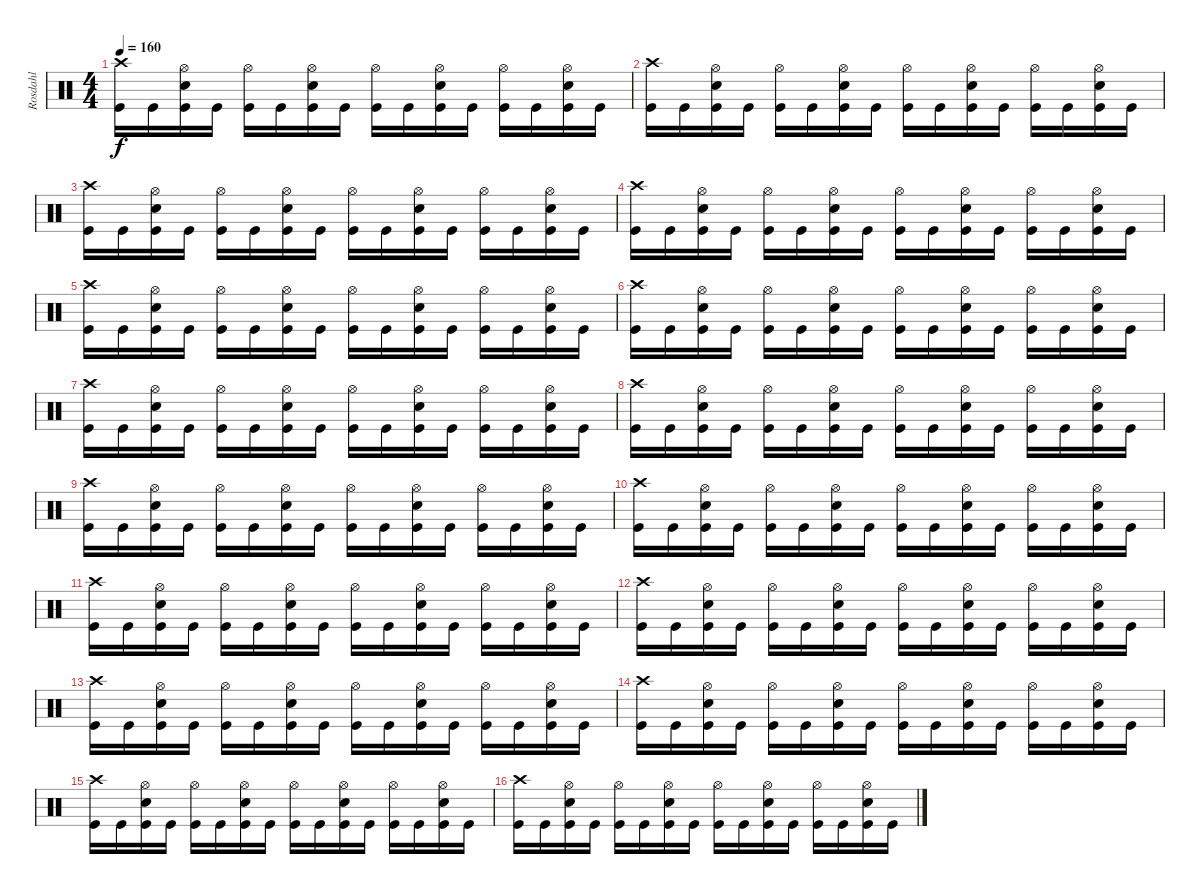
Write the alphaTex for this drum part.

\track ("Rosdahl" "Rosdahl") {instrument percussion}
\staff {score}
\articulation defaults
\ts (4 4)
\tempo 160
\clef neutral
\ks c
("Crash high (hit)" "Kick (hit)").16{dy f} "Kick (hit)".16 ("Hi-Hat (open)" "Electric Snare (hit)" "Kick (hit)").16 "Kick (hit)".16 ("Hi-Hat (open)" "Kick (hit)").16 "Kick (hit)".16 ("Hi-Hat (open)" "Electric Snare (hit)" "Kick (hit)").16 "Kick (hit)".16 ("Hi-Hat (open)" "Kick (hit)").16 "Kick (hit)".16 ("Hi-Hat (open)" "Electric Snare (hit)" "Kick (hit)").16 "Kick (hit)".16 ("Hi-Hat (open)" "Kick (hit)").16 "Kick (hit)".16 ("Hi-Hat (open)" "Electric Snare (hit)" "Kick (hit)").16 "Kick (hit)".16 |
("Crash high (hit)" "Kick (hit)").16 "Kick (hit)".16 ("Hi-Hat (open)" "Electric Snare (hit)" "Kick (hit)").16 "Kick (hit)".16 ("Hi-Hat (open)" "Kick (hit)").16 "Kick (hit)".16 ("Hi-Hat (open)" "Electric Snare (hit)" "Kick (hit)").16 "Kick (hit)".16 ("Hi-Hat (open)" "Kick (hit)").16 "Kick (hit)".16 ("Hi-Hat (open)" "Electric Snare (hit)" "Kick (hit)").16 "Kick (hit)".16 ("Hi-Hat (open)" "Kick (hit)").16 "Kick (hit)".16 ("Hi-Hat (open)" "Electric Snare (hit)" "Kick (hit)").16 "Kick (hit)".16 |
("Crash high (hit)" "Kick (hit)").16 "Kick (hit)".16 ("Hi-Hat (open)" "Electric Snare (hit)" "Kick (hit)").16 "Kick (hit)".16 ("Hi-Hat (open)" "Kick (hit)").16 "Kick (hit)".16 ("Hi-Hat (open)" "Electric Snare (hit)" "Kick (hit)").16 "Kick (hit)".16 ("Hi-Hat (open)" "Kick (hit)").16 "Kick (hit)".16 ("Hi-Hat (open)" "Electric Snare (hit)" "Kick (hit)").16 "Kick (hit)".16 ("Hi-Hat (open)" "Kick (hit)").16 "Kick (hit)".16 ("Hi-Hat (open)" "Electric Snare (hit)" "Kick (hit)").16 "Kick (hit)".16 |
("Crash high (hit)" "Kick (hit)").16 "Kick (hit)".16 ("Hi-Hat (open)" "Electric Snare (hit)" "Kick (hit)").16 "Kick (hit)".16 ("Hi-Hat (open)" "Kick (hit)").16 "Kick (hit)".16 ("Hi-Hat (open)" "Electric Snare (hit)" "Kick (hit)").16 "Kick (hit)".16 ("Hi-Hat (open)" "Kick (hit)").16 "Kick (hit)".16 ("Hi-Hat (open)" "Electric Snare (hit)" "Kick (hit)").16 "Kick (hit)".16 ("Hi-Hat (open)" "Kick (hit)").16 "Kick (hit)".16 ("Hi-Hat (open)" "Electric Snare (hit)" "Kick (hit)").16 "Kick (hit)".16 |
("Crash high (hit)" "Kick (hit)").16 "Kick (hit)".16 ("Hi-Hat (open)" "Electric Snare (hit)" "Kick (hit)").16 "Kick (hit)".16 ("Hi-Hat (open)" "Kick (hit)").16 "Kick (hit)".16 ("Hi-Hat (open)" "Electric Snare (hit)" "Kick (hit)").16 "Kick (hit)".16 ("Hi-Hat (open)" "Kick (hit)").16 "Kick (hit)".16 ("Hi-Hat (open)" "Electric Snare (hit)" "Kick (hit)").16 "Kick (hit)".16 ("Hi-Hat (open)" "Kick (hit)").16 "Kick (hit)".16 ("Hi-Hat (open)" "Electric Snare (hit)" "Kick (hit)").16 "Kick (hit)".16 |
("Crash high (hit)" "Kick (hit)").16 "Kick (hit)".16 ("Hi-Hat (open)" "Electric Snare (hit)" "Kick (hit)").16 "Kick (hit)".16 ("Hi-Hat (open)" "Kick (hit)").16 "Kick (hit)".16 ("Hi-Hat (open)" "Electric Snare (hit)" "Kick (hit)").16 "Kick (hit)".16 ("Hi-Hat (open)" "Kick (hit)").16 "Kick (hit)".16 ("Hi-Hat (open)" "Electric Snare (hit)" "Kick (hit)").16 "Kick (hit)".16 ("Hi-Hat (open)" "Kick (hit)").16 "Kick (hit)".16 ("Hi-Hat (open)" "Electric Snare (hit)" "Kick (hit)").16 "Kick (hit)".16 |
("Crash high (hit)" "Kick (hit)").16 "Kick (hit)".16 ("Hi-Hat (open)" "Electric Snare (hit)" "Kick (hit)").16 "Kick (hit)".16 ("Hi-Hat (open)" "Kick (hit)").16 "Kick (hit)".16 ("Hi-Hat (open)" "Electric Snare (hit)" "Kick (hit)").16 "Kick (hit)".16 ("Hi-Hat (open)" "Kick (hit)").16 "Kick (hit)".16 ("Hi-Hat (open)" "Electric Snare (hit)" "Kick (hit)").16 "Kick (hit)".16 ("Hi-Hat (open)" "Kick (hit)").16 "Kick (hit)".16 ("Hi-Hat (open)" "Electric Snare (hit)" "Kick (hit)").16 "Kick (hit)".16 |
("Crash high (hit)" "Kick (hit)").16 "Kick (hit)".16 ("Hi-Hat (open)" "Electric Snare (hit)" "Kick (hit)").16 "Kick (hit)".16 ("Hi-Hat (open)" "Kick (hit)").16 "Kick (hit)".16 ("Hi-Hat (open)" "Electric Snare (hit)" "Kick (hit)").16 "Kick (hit)".16 ("Hi-Hat (open)" "Kick (hit)").16 "Kick (hit)".16 ("Hi-Hat (open)" "Electric Snare (hit)" "Kick (hit)").16 "Kick (hit)".16 ("Hi-Hat (open)" "Kick (hit)").16 "Kick (hit)".16 ("Hi-Hat (open)" "Electric Snare (hit)" "Kick (hit)").16 "Kick (hit)".16 |
("Crash high (hit)" "Kick (hit)").16 "Kick (hit)".16 ("Hi-Hat (open)" "Electric Snare (hit)" "Kick (hit)").16 "Kick (hit)".16 ("Hi-Hat (open)" "Kick (hit)").16 "Kick (hit)".16 ("Hi-Hat (open)" "Electric Snare (hit)" "Kick (hit)").16 "Kick (hit)".16 ("Hi-Hat (open)" "Kick (hit)").16 "Kick (hit)".16 ("Hi-Hat (open)" "Electric Snare (hit)" "Kick (hit)").16 "Kick (hit)".16 ("Hi-Hat (open)" "Kick (hit)").16 "Kick (hit)".16 ("Hi-Hat (open)" "Electric Snare (hit)" "Kick (hit)").16 "Kick (hit)".16 |
("Crash high (hit)" "Kick (hit)").16 "Kick (hit)".16 ("Hi-Hat (open)" "Electric Snare (hit)" "Kick (hit)").16 "Kick (hit)".16 ("Hi-Hat (open)" "Kick (hit)").16 "Kick (hit)".16 ("Hi-Hat (open)" "Electric Snare (hit)" "Kick (hit)").16 "Kick (hit)".16 ("Hi-Hat (open)" "Kick (hit)").16 "Kick (hit)".16 ("Hi-Hat (open)" "Electric Snare (hit)" "Kick (hit)").16 "Kick (hit)".16 ("Hi-Hat (open)" "Kick (hit)").16 "Kick (hit)".16 ("Hi-Hat (open)" "Electric Snare (hit)" "Kick (hit)").16 "Kick (hit)".16 |
("Crash high (hit)" "Kick (hit)").16 "Kick (hit)".16 ("Hi-Hat (open)" "Electric Snare (hit)" "Kick (hit)").16 "Kick (hit)".16 ("Hi-Hat (open)" "Kick (hit)").16 "Kick (hit)".16 ("Hi-Hat (open)" "Electric Snare (hit)" "Kick (hit)").16 "Kick (hit)".16 ("Hi-Hat (open)" "Kick (hit)").16 "Kick (hit)".16 ("Hi-Hat (open)" "Electric Snare (hit)" "Kick (hit)").16 "Kick (hit)".16 ("Hi-Hat (open)" "Kick (hit)").16 "Kick (hit)".16 ("Hi-Hat (open)" "Electric Snare (hit)" "Kick (hit)").16 "Kick (hit)".16 |
("Crash high (hit)" "Kick (hit)").16 "Kick (hit)".16 ("Hi-Hat (open)" "Electric Snare (hit)" "Kick (hit)").16 "Kick (hit)".16 ("Hi-Hat (open)" "Kick (hit)").16 "Kick (hit)".16 ("Hi-Hat (open)" "Electric Snare (hit)" "Kick (hit)").16 "Kick (hit)".16 ("Hi-Hat (open)" "Kick (hit)").16 "Kick (hit)".16 ("Hi-Hat (open)" "Electric Snare (hit)" "Kick (hit)").16 "Kick (hit)".16 ("Hi-Hat (open)" "Kick (hit)").16 "Kick (hit)".16 ("Hi-Hat (open)" "Electric Snare (hit)" "Kick (hit)").16 "Kick (hit)".16 |
("Crash high (hit)" "Kick (hit)").16 "Kick (hit)".16 ("Hi-Hat (open)" "Electric Snare (hit)" "Kick (hit)").16 "Kick (hit)".16 ("Hi-Hat (open)" "Kick (hit)").16 "Kick (hit)".16 ("Hi-Hat (open)" "Electric Snare (hit)" "Kick (hit)").16 "Kick (hit)".16 ("Hi-Hat (open)" "Kick (hit)").16 "Kick (hit)".16 ("Hi-Hat (open)" "Electric Snare (hit)" "Kick (hit)").16 "Kick (hit)".16 ("Hi-Hat (open)" "Kick (hit)").16 "Kick (hit)".16 ("Hi-Hat (open)" "Electric Snare (hit)" "Kick (hit)").16 "Kick (hit)".16 |
("Crash high (hit)" "Kick (hit)").16 "Kick (hit)".16 ("Hi-Hat (open)" "Electric Snare (hit)" "Kick (hit)").16 "Kick (hit)".16 ("Hi-Hat (open)" "Kick (hit)").16 "Kick (hit)".16 ("Hi-Hat (open)" "Electric Snare (hit)" "Kick (hit)").16 "Kick (hit)".16 ("Hi-Hat (open)" "Kick (hit)").16 "Kick (hit)".16 ("Hi-Hat (open)" "Electric Snare (hit)" "Kick (hit)").16 "Kick (hit)".16 ("Hi-Hat (open)" "Kick (hit)").16 "Kick (hit)".16 ("Hi-Hat (open)" "Electric Snare (hit)" "Kick (hit)").16 "Kick (hit)".16 |
("Crash high (hit)" "Kick (hit)").16 "Kick (hit)".16 ("Hi-Hat (open)" "Electric Snare (hit)" "Kick (hit)").16 "Kick (hit)".16 ("Hi-Hat (open)" "Kick (hit)").16 "Kick (hit)".16 ("Hi-Hat (open)" "Electric Snare (hit)" "Kick (hit)").16 "Kick (hit)".16 ("Hi-Hat (open)" "Kick (hit)").16 "Kick (hit)".16 ("Hi-Hat (open)" "Electric Snare (hit)" "Kick (hit)").16 "Kick (hit)".16 ("Hi-Hat (open)" "Kick (hit)").16 "Kick (hit)".16 ("Hi-Hat (open)" "Electric Snare (hit)" "Kick (hit)").16 "Kick (hit)".16 |
("Crash high (hit)" "Kick (hit)").16 "Kick (hit)".16 ("Hi-Hat (open)" "Electric Snare (hit)" "Kick (hit)").16 "Kick (hit)".16 ("Hi-Hat (open)" "Kick (hit)").16 "Kick (hit)".16 ("Hi-Hat (open)" "Electric Snare (hit)" "Kick (hit)").16 "Kick (hit)".16 ("Hi-Hat (open)" "Kick (hit)").16 "Kick (hit)".16 ("Hi-Hat (open)" "Electric Snare (hit)" "Kick (hit)").16 "Kick (hit)".16 ("Hi-Hat (open)" "Kick (hit)").16 "Kick (hit)".16 ("Hi-Hat (open)" "Electric Snare (hit)" "Kick (hit)").16 "Kick (hit)".16
